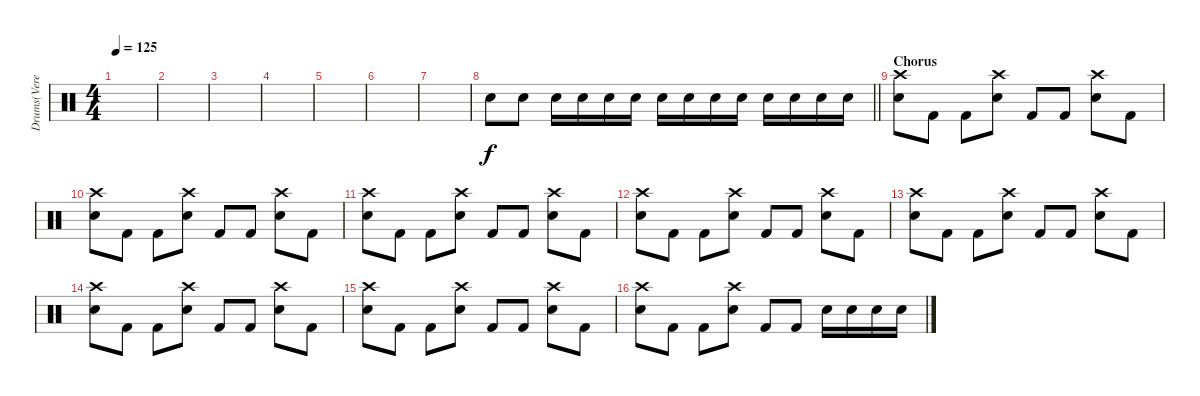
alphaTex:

\track ("Drums(Vereinfacht) - Daniel" "Drums(Vere") {instrument percussion}
\staff {score}
\articulation defaults
\ts (4 4)
\tempo 125
\clef neutral
\ks c
|
|
|
|
|
|
|
\barLineRight lightlight "Snare (hit) 2".8 "Snare (hit) 2".8 "Snare (hit) 2".16 "Snare (hit) 2".16 "Snare (hit) 2".16 "Snare (hit) 2".16 "Snare (hit) 2".16 "Snare (hit) 2".16 "Snare (hit) 2".16 "Snare (hit) 2".16 "Snare (hit) 2".16 "Snare (hit) 2".16 "Snare (hit) 2".16 "Snare (hit) 2".16
|
\section ("" "Chorus")
("Snare (hit) 2" "Crash high (hit)").8 "Kick (hit) 2".8 "Kick (hit) 2".8 ("Snare (hit) 2" "Crash high (hit)").8 "Kick (hit) 2".8 "Kick (hit) 2".8 ("Snare (hit) 2" "Crash high (hit)").8 "Kick (hit) 2".8 |
("Snare (hit) 2" "Crash high (hit)").8 "Kick (hit) 2".8 "Kick (hit) 2".8 ("Snare (hit) 2" "Crash high (hit)").8 "Kick (hit) 2".8 "Kick (hit) 2".8 ("Snare (hit) 2" "Crash high (hit)").8 "Kick (hit) 2".8 |
("Snare (hit) 2" "Crash high (hit)").8 "Kick (hit) 2".8 "Kick (hit) 2".8 ("Snare (hit) 2" "Crash high (hit)").8 "Kick (hit) 2".8 "Kick (hit) 2".8 ("Snare (hit) 2" "Crash high (hit)").8 "Kick (hit) 2".8 |
("Snare (hit) 2" "Crash high (hit)").8 "Kick (hit) 2".8 "Kick (hit) 2".8 ("Snare (hit) 2" "Crash high (hit)").8 "Kick (hit) 2".8 "Kick (hit) 2".8 ("Snare (hit) 2" "Crash high (hit)").8 "Kick (hit) 2".8 |
("Snare (hit) 2" "Crash high (hit)").8 "Kick (hit) 2".8 "Kick (hit) 2".8 ("Snare (hit) 2" "Crash high (hit)").8 "Kick (hit) 2".8 "Kick (hit) 2".8 ("Snare (hit) 2" "Crash high (hit)").8 "Kick (hit) 2".8 |
("Snare (hit) 2" "Crash high (hit)").8 "Kick (hit) 2".8 "Kick (hit) 2".8 ("Snare (hit) 2" "Crash high (hit)").8 "Kick (hit) 2".8 "Kick (hit) 2".8 ("Snare (hit) 2" "Crash high (hit)").8 "Kick (hit) 2".8 |
("Snare (hit) 2" "Crash high (hit)").8 "Kick (hit) 2".8 "Kick (hit) 2".8 ("Snare (hit) 2" "Crash high (hit)").8 "Kick (hit) 2".8 "Kick (hit) 2".8 ("Snare (hit) 2" "Crash high (hit)").8 "Kick (hit) 2".8 |
("Snare (hit) 2" "Crash high (hit)").8 "Kick (hit) 2".8 "Kick (hit) 2".8 ("Snare (hit) 2" "Crash high (hit)").8 "Kick (hit) 2".8 "Kick (hit) 2".8 "Snare (hit) 2".16 "Snare (hit) 2".16 "Snare (hit) 2".16 "Snare (hit) 2".16
